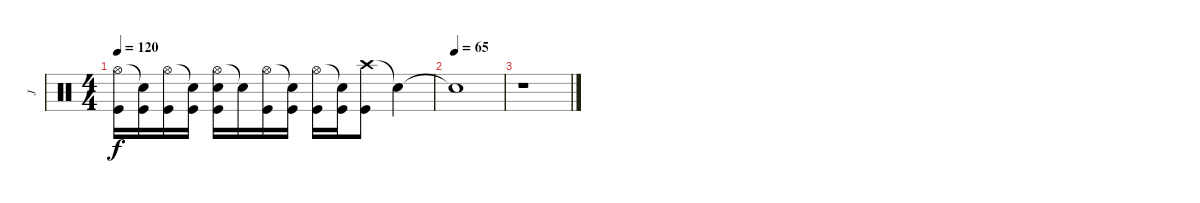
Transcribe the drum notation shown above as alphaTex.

\track ("J" "J") {instrument percussion}
\staff {score}
\articulation defaults
\ts (4 4)
\tempo 120
\clef neutral
\ks c
("Hi-Hat (open)" "Kick (hit)").16{dy f} ("Snare (hit)"{t} "Kick (hit)").16 ("Hi-Hat (open)" "Kick (hit)").16 ("Snare (hit)"{t} "Kick (hit)").16 ("Hi-Hat (open)" "Electric Snare (hit)" "Kick (hit)").16 "Snare (hit)"{t}.16 ("Hi-Hat (open)" "Kick (hit)").16 ("Snare (hit)"{t} "Kick (hit)").16 ("Hi-Hat (open)" "Kick (hit)").16 ("Snare (hit)"{t} "Kick (hit)").16 ("Crash high (hit)" "Kick (hit)").8 "Snare (hit)"{t}.4 |
\tempo (65)
"Snare (hit)"{t}.1 |
r.1
